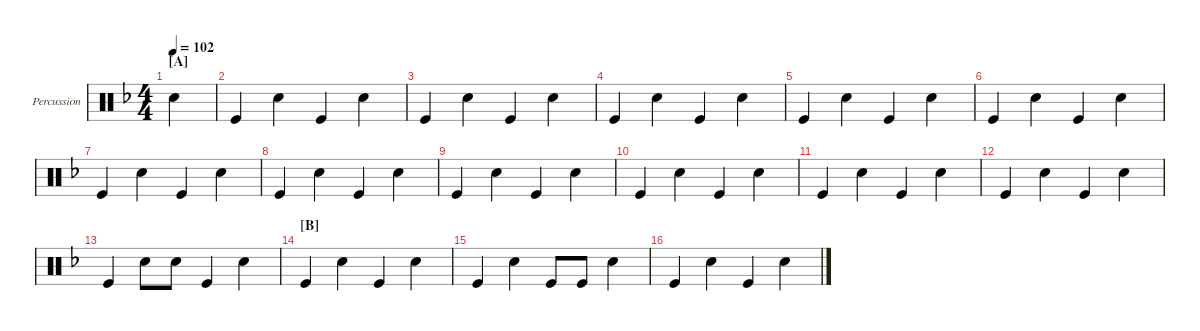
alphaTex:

\defaultSystemsLayout 4
\hideDynamics
\bracketExtendMode groupsimilarinstruments
\firstSystemTrackNameMode fullname
\otherSystemsTrackNameMode fullname
\firstSystemTrackNameOrientation horizontal
\otherSystemsTrackNameOrientation horizontal
\track ("Percussion" "Perc.") {instrument percussion}
\staff {score}
\articulation defaults
\ts (4 4)
\section ("A" "")
\ac
\scale
0.529161
\tempo 102
\accidentals auto
\clef neutral
\ottava regular
\simile none
\scale
0.688525
\ks dminor "Snare (hit) 2".4{dy mf}
|
\scale
1.46887 "Kick (hit)".4 "Snare (hit) 2".4 "Kick (hit)".4 "Snare (hit) 2".4 |
"Kick (hit)".4 "Snare (hit) 2".4 "Kick (hit)".4 "Snare (hit) 2".4 |
"Kick (hit)".4 "Snare (hit) 2".4 "Kick (hit)".4 "Snare (hit) 2".4 |
"Kick (hit)".4 "Snare (hit) 2".4 "Kick (hit)".4 "Snare (hit) 2".4 |
"Kick (hit)".4 "Snare (hit) 2".4 "Kick (hit)".4 "Snare (hit) 2".4 |
"Kick (hit)".4 "Snare (hit) 2".4 "Kick (hit)".4 "Snare (hit) 2".4 |
"Kick (hit)".4 "Snare (hit) 2".4 "Kick (hit)".4 "Snare (hit) 2".4 |
"Kick (hit)".4 "Snare (hit) 2".4 "Kick (hit)".4 "Snare (hit) 2".4 |
"Kick (hit)".4 "Snare (hit) 2".4 "Kick (hit)".4 "Snare (hit) 2".4 |
"Kick (hit)".4 "Snare (hit) 2".4 "Kick (hit)".4 "Snare (hit) 2".4 |
"Kick (hit)".4 "Snare (hit) 2".4 "Kick (hit)".4 "Snare (hit) 2".4 |
"Kick (hit)".4 "Snare (hit) 2".8 "Snare (hit) 2".8 "Kick (hit)".4 "Snare (hit) 2".4 |
\section ("B" "")
"Kick (hit)".4 "Snare (hit) 2".4 "Kick (hit)".4 "Snare (hit) 2".4 |
"Kick (hit)".4 "Snare (hit) 2".4 "Kick (hit)".8 "Kick (hit)".8 "Snare (hit) 2".4 |
"Kick (hit)".4 "Snare (hit) 2".4 "Kick (hit)".4 "Snare (hit) 2".4
